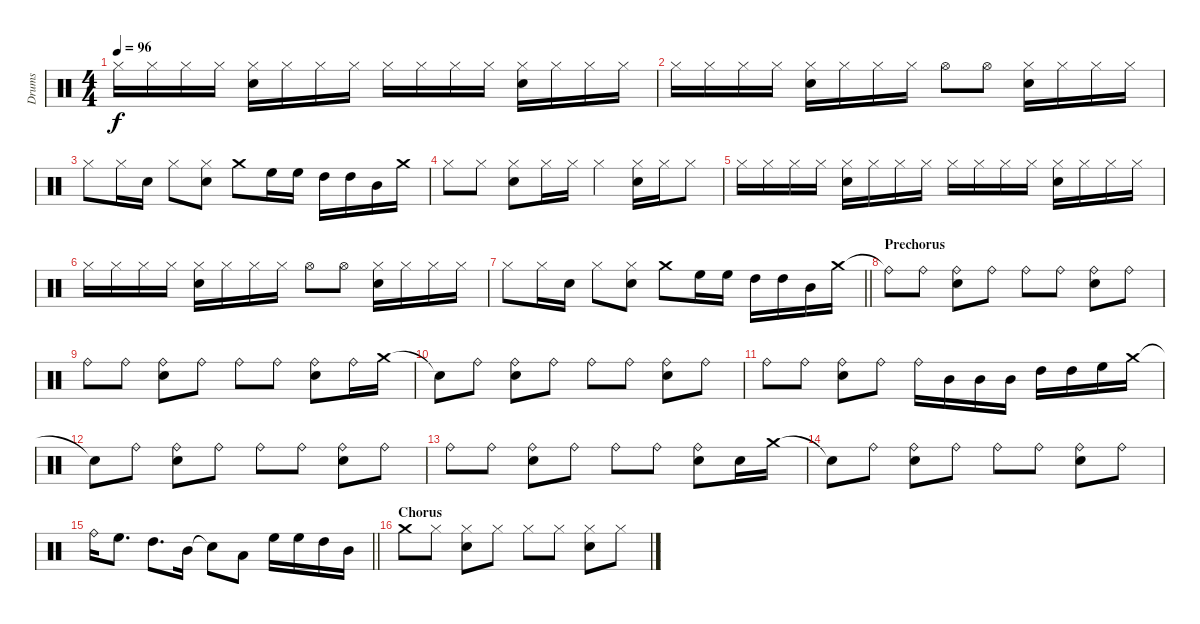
\track ("Drums" "Drums") {instrument percussion}
\staff {score}
\articulation defaults
\ts (4 4)
\tempo 96
\clef neutral
\ks c "Hi-Hat (closed)".16{dy f} "Hi-Hat (closed)".16 "Hi-Hat (closed)".16 "Hi-Hat (closed)".16
("Hi-Hat (closed)" "Electric Snare (hit)").16 "Hi-Hat (closed)".16 "Hi-Hat (closed)".16 "Hi-Hat (closed)".16 "Hi-Hat (closed)".16 "Hi-Hat (closed)".16 "Hi-Hat (closed)".16 "Hi-Hat (closed)".16 ("Hi-Hat (closed)" "Electric Snare (hit)").16 "Hi-Hat (closed)".16 "Hi-Hat (closed)".16 "Hi-Hat (closed)".16 |
"Hi-Hat (closed)".16 "Hi-Hat (closed)".16 "Hi-Hat (closed)".16 "Hi-Hat (closed)".16 ("Hi-Hat (closed)" "Electric Snare (hit)").16 "Hi-Hat (closed)".16 "Hi-Hat (closed)".16 "Hi-Hat (closed)".16 "Hi-Hat (open)".8 "Hi-Hat (open)".8 ("Hi-Hat (closed)" "Electric Snare (hit)").16 "Hi-Hat (closed)".16 "Hi-Hat (closed)".16 "Hi-Hat (closed)".16 |
"Hi-Hat (closed)".8 "Hi-Hat (closed)".16 "Electric Snare (hit)".16 "Hi-Hat (closed)".8 ("Hi-Hat (closed)" "Electric Snare (hit)").8 "Crash medium (hit)".8 "High Floor Tom (hit)".16 "High Floor Tom (hit)".16 "High Tom (hit)".16 "High Tom (hit)".16 "Mid Tom (hit)".16 "Crash medium (hit)".16 |
"Hi-Hat (closed)".8 "Hi-Hat (closed)".8 ("Hi-Hat (closed)" "Electric Snare (hit)").8 "Hi-Hat (closed)".16 "Hi-Hat (closed)".16 "Hi-Hat (closed)".4 ("Hi-Hat (closed)" "Electric Snare (hit)").16 "Hi-Hat (closed)".16 "Hi-Hat (closed)".8 |
"Hi-Hat (closed)".16 "Hi-Hat (closed)".16 "Hi-Hat (closed)".16 "Hi-Hat (closed)".16 ("Hi-Hat (closed)" "Electric Snare (hit)").16 "Hi-Hat (closed)".16 "Hi-Hat (closed)".16 "Hi-Hat (closed)".16 "Hi-Hat (closed)".16 "Hi-Hat (closed)".16 "Hi-Hat (closed)".16 "Hi-Hat (closed)".16 ("Hi-Hat (closed)" "Electric Snare (hit)").16 "Hi-Hat (closed)".16 "Hi-Hat (closed)".16 "Hi-Hat (closed)".16 |
"Hi-Hat (closed)".16 "Hi-Hat (closed)".16 "Hi-Hat (closed)".16 "Hi-Hat (closed)".16 ("Hi-Hat (closed)" "Electric Snare (hit)").16 "Hi-Hat (closed)".16 "Hi-Hat (closed)".16 "Hi-Hat (closed)".16 "Hi-Hat (open)".8 "Hi-Hat (open)".8 ("Hi-Hat (closed)" "Electric Snare (hit)").16 "Hi-Hat (closed)".16 "Hi-Hat (closed)".16 "Hi-Hat (closed)".16 |
\barLineRight lightlight "Hi-Hat (closed)".8 "Hi-Hat (closed)".16 "Electric Snare (hit)".16 "Hi-Hat (closed)".8
("Hi-Hat (closed)" "Electric Snare (hit)").8 "Crash medium (hit)".8 "High Floor Tom (hit)".16 "High Floor Tom (hit)".16 "High Tom (hit)".16 "High Tom (hit)".16 "Mid Tom (hit)".16 "Crash medium (hit)".16 |
\section ("" "Prechorus")
"Ride (bell)"{t}.8 "Ride (bell)".8 ("Ride (bell)" "Electric Snare (hit)").8 "Ride (bell)".8 "Ride (bell)".8 "Ride (bell)".8 ("Ride (bell)" "Electric Snare (hit)").8 "Ride (bell)".8 |
"Ride (bell)".8 "Ride (bell)".8 ("Ride (bell)" "Electric Snare (hit)").8 "Ride (bell)".8 "Ride (bell)".8 "Ride (bell)".8 ("Ride (bell)" "Electric Snare (hit)").8 "Ride (bell)".16 "Crash medium (hit)".16 |
"Snare (hit)"{t}.8 "Ride (bell)".8 ("Ride (bell)" "Electric Snare (hit)").8 "Ride (bell)".8 "Ride (bell)".8 "Ride (bell)".8 ("Ride (bell)" "Electric Snare (hit)").8 "Ride (bell)".8 |
"Ride (bell)".8 "Ride (bell)".8 ("Ride (bell)" "Electric Snare (hit)").8 "Ride (bell)".8 "Ride (bell)".16 "Mid Tom (hit)".16 "Mid Tom (hit)".16 "Mid Tom (hit)".16 "High Tom (hit)".16 "High Tom (hit)".16 "High Floor Tom (hit)".16 "Crash medium (hit)".16 |
"Snare (hit)"{t}.8 "Ride (bell)".8 ("Ride (bell)" "Electric Snare (hit)").8 "Ride (bell)".8 "Ride (bell)".8 "Ride (bell)".8 ("Ride (bell)" "Electric Snare (hit)").8 "Ride (bell)".8 |
"Ride (bell)".8 "Ride (bell)".8 ("Ride (bell)" "Electric Snare (hit)").8 "Ride (bell)".8 "Ride (bell)".8 "Ride (bell)".8 ("Ride (bell)" "Electric Snare (hit)").8 "Electric Snare (hit)".16 "Crash medium (hit)".16 |
"Snare (hit)"{t}.8 "Ride (bell)".8 ("Ride (bell)" "Electric Snare (hit)").8 "Ride (bell)".8 "Ride (bell)".8 "Ride (bell)".8 ("Ride (bell)" "Electric Snare (hit)").8 "Ride (bell)".8 |
\barLineRight lightlight "Ride (bell)".16 "High Floor Tom (hit)".8{d} "High Tom (hit)".8{d} "Mid Tom (hit)".16 "Snare (hit)"{t}.8 "Low Tom (hit)".8 "High Floor Tom (hit)".16 "High Floor Tom (hit)".16 "High Tom (hit)".16 "Mid Tom (hit)".16
|
\section ("" "Chorus")
"Crash medium (hit)".8 "Hi-Hat (closed)".8 ("Hi-Hat (closed)" "Electric Snare (hit)").8 "Hi-Hat (closed)".8 "Hi-Hat (closed)".8 "Hi-Hat (closed)".8 ("Hi-Hat (closed)" "Electric Snare (hit)").8 "Hi-Hat (closed)".8
